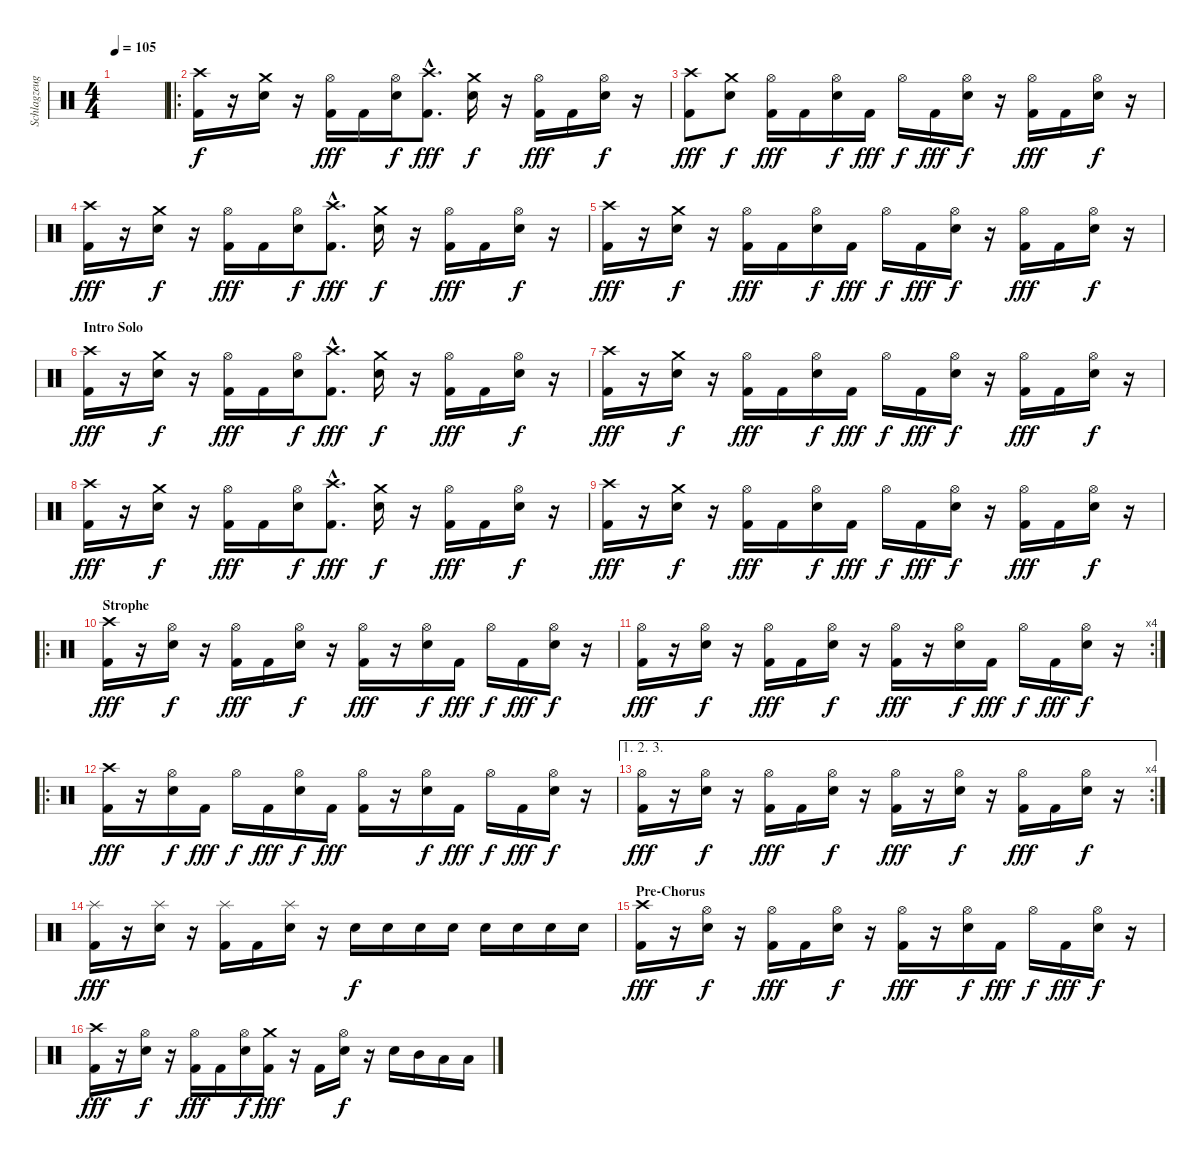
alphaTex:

\track ("Schlagzeug" "Schlagzeug") {instrument percussion}
\staff {score}
\articulation defaults
\ts (4 4)
\tempo 105
\clef neutral
\ks c
|
\ro
("Crash high (hit)" "Kick (hit) 2").16 r.16 ("Crash medium (hit)" "Electric Snare (hit)").16{dy f} r.16 ("Hi-Hat (open)" "Kick (hit) 2").16{dy fff} "Kick (hit) 2".16 ("Hi-Hat (open)" "Electric Snare (hit)").16{dy f} ("Crash high (hit)"{hac} "Kick (hit) 2"{hac}).8{d dy fff} ("Crash medium (hit)" "Electric Snare (hit)").16{dy f} r.16 ("Hi-Hat (open)" "Kick (hit) 2").16{dy fff} "Kick (hit) 2".16 ("Hi-Hat (open)" "Electric Snare (hit)").16{dy f} r.16 |
("Crash high (hit)" "Kick (hit) 2").8{dy fff} ("Crash medium (hit)" "Electric Snare (hit)").8{dy f} ("Hi-Hat (open)" "Kick (hit) 2").16{dy fff} "Kick (hit) 2".16 ("Hi-Hat (open)" "Electric Snare (hit)").16{dy f} "Kick (hit) 2".16{dy fff} "Hi-Hat (open)".16{dy f} "Kick (hit) 2".16{dy fff} ("Hi-Hat (open)" "Electric Snare (hit)").16{dy f} r.16 ("Hi-Hat (open)" "Kick (hit) 2").16{dy fff} "Kick (hit) 2".16 ("Hi-Hat (open)" "Electric Snare (hit)").16{dy f} r.16 |
("Crash high (hit)" "Kick (hit) 2").16{dy fff} r.16 ("Crash medium (hit)" "Electric Snare (hit)").16{dy f} r.16 ("Hi-Hat (open)" "Kick (hit) 2").16{dy fff} "Kick (hit) 2".16 ("Hi-Hat (open)" "Electric Snare (hit)").16{dy f} ("Crash high (hit)"{hac} "Kick (hit) 2"{hac}).8{d dy fff} ("Crash medium (hit)" "Electric Snare (hit)").16{dy f} r.16 ("Hi-Hat (open)" "Kick (hit) 2").16{dy fff} "Kick (hit) 2".16 ("Hi-Hat (open)" "Electric Snare (hit)").16{dy f} r.16 |
("Crash high (hit)" "Kick (hit) 2").16{dy fff} r.16 ("Crash medium (hit)" "Electric Snare (hit)").16{dy f} r.16 ("Hi-Hat (open)" "Kick (hit) 2").16{dy fff} "Kick (hit) 2".16 ("Hi-Hat (open)" "Electric Snare (hit)").16{dy f} "Kick (hit) 2".16{dy fff} "Hi-Hat (open)".16{dy f} "Kick (hit) 2".16{dy fff} ("Hi-Hat (open)" "Electric Snare (hit)").16{dy f} r.16 ("Hi-Hat (open)" "Kick (hit) 2").16{dy fff} "Kick (hit) 2".16 ("Hi-Hat (open)" "Electric Snare (hit)").16{dy f} r.16 |
\section ("" "Intro Solo")
("Crash high (hit)" "Kick (hit) 2").16{dy fff} r.16 ("Crash medium (hit)" "Electric Snare (hit)").16{dy f} r.16 ("Hi-Hat (open)" "Kick (hit) 2").16{dy fff} "Kick (hit) 2".16 ("Hi-Hat (open)" "Electric Snare (hit)").16{dy f} ("Crash high (hit)"{hac} "Kick (hit) 2"{hac}).8{d dy fff} ("Crash medium (hit)" "Electric Snare (hit)").16{dy f} r.16 ("Hi-Hat (open)" "Kick (hit) 2").16{dy fff} "Kick (hit) 2".16 ("Hi-Hat (open)" "Electric Snare (hit)").16{dy f} r.16 |
("Crash high (hit)" "Kick (hit) 2").16{dy fff} r.16 ("Crash medium (hit)" "Electric Snare (hit)").16{dy f} r.16 ("Hi-Hat (open)" "Kick (hit) 2").16{dy fff} "Kick (hit) 2".16 ("Hi-Hat (open)" "Electric Snare (hit)").16{dy f} "Kick (hit) 2".16{dy fff} "Hi-Hat (open)".16{dy f} "Kick (hit) 2".16{dy fff} ("Hi-Hat (open)" "Electric Snare (hit)").16{dy f} r.16 ("Hi-Hat (open)" "Kick (hit) 2").16{dy fff} "Kick (hit) 2".16 ("Hi-Hat (open)" "Electric Snare (hit)").16{dy f} r.16 |
("Crash high (hit)" "Kick (hit) 2").16{dy fff} r.16 ("Crash medium (hit)" "Electric Snare (hit)").16{dy f} r.16 ("Hi-Hat (open)" "Kick (hit) 2").16{dy fff} "Kick (hit) 2".16 ("Hi-Hat (open)" "Electric Snare (hit)").16{dy f} ("Crash high (hit)"{hac} "Kick (hit) 2"{hac}).8{d dy fff} ("Crash medium (hit)" "Electric Snare (hit)").16{dy f} r.16 ("Hi-Hat (open)" "Kick (hit) 2").16{dy fff} "Kick (hit) 2".16 ("Hi-Hat (open)" "Electric Snare (hit)").16{dy f} r.16 |
("Crash high (hit)" "Kick (hit) 2").16{dy fff} r.16 ("Crash medium (hit)" "Electric Snare (hit)").16{dy f} r.16 ("Hi-Hat (open)" "Kick (hit) 2").16{dy fff} "Kick (hit) 2".16 ("Hi-Hat (open)" "Electric Snare (hit)").16{dy f} "Kick (hit) 2".16{dy fff} "Hi-Hat (open)".16{dy f} "Kick (hit) 2".16{dy fff} ("Hi-Hat (open)" "Electric Snare (hit)").16{dy f} r.16 ("Hi-Hat (open)" "Kick (hit) 2").16{dy fff} "Kick (hit) 2".16 ("Hi-Hat (open)" "Electric Snare (hit)").16{dy f} r.16 |
\ro
\section ("" "Strophe")
("Crash high (hit)" "Kick (hit) 2").16{dy fff} r.16 ("Hi-Hat (open)" "Electric Snare (hit)").16{dy f} r.16 ("Hi-Hat (open)" "Kick (hit) 2").16{dy fff} "Kick (hit) 2".16 ("Hi-Hat (open)" "Electric Snare (hit)").16{dy f} r.16 ("Hi-Hat (open)" "Kick (hit) 2").16{dy fff} r.16 ("Hi-Hat (open)" "Electric Snare (hit)").16{dy f} "Kick (hit) 2".16{dy fff} "Hi-Hat (open)".16{dy f} "Kick (hit) 2".16{dy fff} ("Hi-Hat (open)" "Electric Snare (hit)").16{dy f} r.16 |
\rc 4
("Hi-Hat (open)" "Kick (hit) 2").16{dy fff} r.16 ("Hi-Hat (open)" "Electric Snare (hit)").16{dy f} r.16 ("Hi-Hat (open)" "Kick (hit) 2").16{dy fff} "Kick (hit) 2".16 ("Hi-Hat (open)" "Electric Snare (hit)").16{dy f} r.16 ("Hi-Hat (open)" "Kick (hit) 2").16{dy fff} r.16 ("Hi-Hat (open)" "Electric Snare (hit)").16{dy f} "Kick (hit) 2".16{dy fff} "Hi-Hat (open)".16{dy f} "Kick (hit) 2".16{dy fff} ("Hi-Hat (open)" "Electric Snare (hit)").16{dy f} r.16 |
\ro
("Crash high (hit)" "Kick (hit) 2").16{dy fff} r.16 ("Hi-Hat (open)" "Electric Snare (hit)").16{dy f} "Kick (hit) 2".16{dy fff} "Hi-Hat (open)".16{dy f} "Kick (hit) 2".16{dy fff} ("Hi-Hat (open)" "Electric Snare (hit)").16{dy f} "Kick (hit) 2".16{dy fff} ("Hi-Hat (open)" "Kick (hit) 2").16 r.16 ("Hi-Hat (open)" "Electric Snare (hit)").16{dy f} "Kick (hit) 2".16{dy fff} "Hi-Hat (open)".16{dy f} "Kick (hit) 2".16{dy fff} ("Hi-Hat (open)" "Electric Snare (hit)").16{dy f} r.16 |
\ae (1 2 3)
\rc 4
("Hi-Hat (open)" "Kick (hit) 2").16{dy fff} r.16 ("Hi-Hat (open)" "Electric Snare (hit)").16{dy f} r.16 ("Hi-Hat (open)" "Kick (hit) 2").16{dy fff} "Kick (hit) 2".16 ("Hi-Hat (open)" "Electric Snare (hit)").16{dy f} r.16 ("Hi-Hat (open)" "Kick (hit) 2").16{dy fff} r.16 ("Hi-Hat (open)" "Electric Snare (hit)").16{dy f} r.16 ("Hi-Hat (open)" "Kick (hit) 2").16{dy fff} "Kick (hit) 2".16 ("Hi-Hat (open)" "Electric Snare (hit)").16{dy f} r.16 |
("Splash (hit)" "Kick (hit) 2").16{dy fff} r.16 ("Splash (hit)" "Electric Snare (hit)").16 r.16 ("Splash (hit)" "Kick (hit) 2").16 "Kick (hit) 2".16 ("Splash (hit)" "Electric Snare (hit)").16 r.16 "Electric Snare (hit)".16{dy f} "Electric Snare (hit)".16 "Electric Snare (hit)".16 "Electric Snare (hit)".16 "Electric Snare (hit)".16 "Electric Snare (hit)".16 "Electric Snare (hit)".16 "Electric Snare (hit)".16 |
\section ("" "Pre-Chorus")
("Crash high (hit)" "Kick (hit) 2").16{dy fff} r.16 ("Hi-Hat (open)" "Electric Snare (hit)").16{dy f} r.16 ("Hi-Hat (open)" "Kick (hit) 2").16{dy fff} "Kick (hit) 2".16 ("Hi-Hat (open)" "Electric Snare (hit)").16{dy f} r.16 ("Hi-Hat (open)" "Kick (hit) 2").16{dy fff} r.16 ("Hi-Hat (open)" "Electric Snare (hit)").16{dy f} "Kick (hit) 2".16{dy fff} "Hi-Hat (open)".16{dy f} "Kick (hit) 2".16{dy fff} ("Hi-Hat (open)" "Electric Snare (hit)").16{dy f} r.16 |
("Crash high (hit)" "Kick (hit) 2").16{dy fff} r.16 ("Hi-Hat (open)" "Electric Snare (hit)").16{dy f} r.16 ("Hi-Hat (open)" "Kick (hit) 2").16{dy fff} "Kick (hit) 2".16 ("Hi-Hat (open)" "Electric Snare (hit)").16{dy f} ("Crash medium (hit)" "Kick (hit) 2").16{dy fff} r.16 "Kick (hit) 2".16 ("Hi-Hat (open)" "Electric Snare (hit)").16{dy f} r.16 "Electric Snare (hit)".16 "Mid Tom (hit)".16 "Low Tom (hit)".16 "Low Floor Tom (hit)".16
